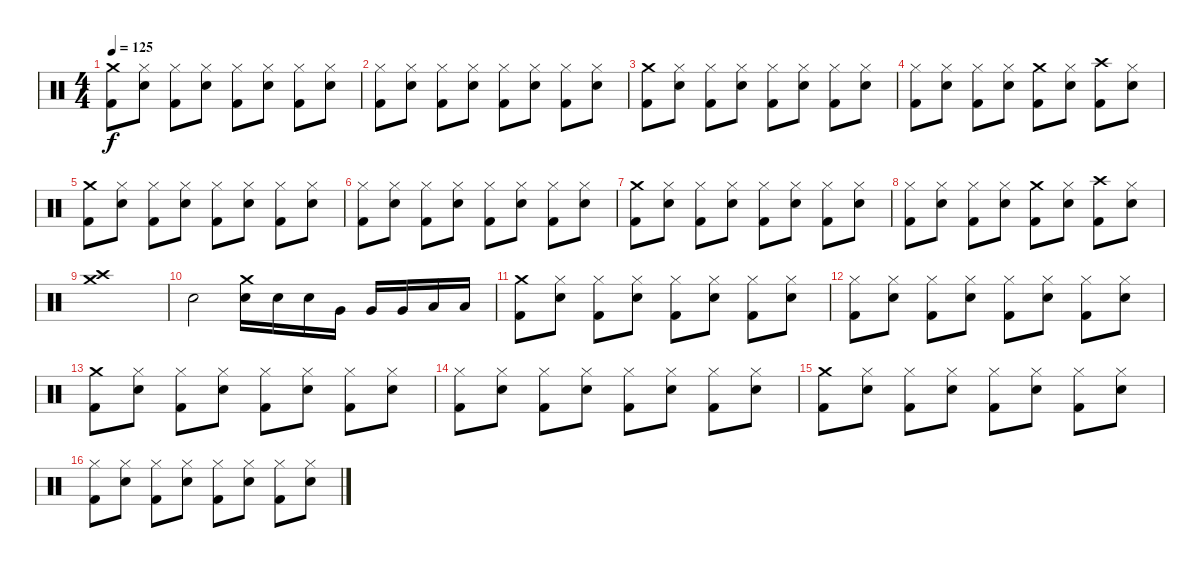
\track (" " " ") {instrument percussion}
\staff {score}
\articulation defaults
\ts (4 4)
\tempo 125
\clef neutral
\ks c
("Crash medium (hit)" "Kick (hit) 2").8{dy f} ("Hi-Hat (closed)" "Snare (hit) 2").8 ("Hi-Hat (closed)" "Kick (hit) 2").8 ("Hi-Hat (closed)" "Snare (hit) 2").8 ("Hi-Hat (closed)" "Kick (hit) 2").8 ("Hi-Hat (closed)" "Snare (hit) 2").8 ("Hi-Hat (closed)" "Kick (hit) 2").8 ("Hi-Hat (closed)" "Snare (hit) 2").8 |
("Hi-Hat (closed)" "Kick (hit) 2").8 ("Hi-Hat (closed)" "Snare (hit) 2").8 ("Hi-Hat (closed)" "Kick (hit) 2").8 ("Hi-Hat (closed)" "Snare (hit) 2").8 ("Hi-Hat (closed)" "Kick (hit) 2").8 ("Hi-Hat (closed)" "Snare (hit) 2").8 ("Hi-Hat (closed)" "Kick (hit) 2").8 ("Hi-Hat (closed)" "Snare (hit) 2").8 |
("Crash medium (hit)" "Kick (hit) 2").8 ("Hi-Hat (closed)" "Snare (hit) 2").8 ("Hi-Hat (closed)" "Kick (hit) 2").8 ("Hi-Hat (closed)" "Snare (hit) 2").8 ("Hi-Hat (closed)" "Kick (hit) 2").8 ("Hi-Hat (closed)" "Snare (hit) 2").8 ("Hi-Hat (closed)" "Kick (hit) 2").8 ("Hi-Hat (closed)" "Snare (hit) 2").8 |
("Hi-Hat (closed)" "Kick (hit) 2").8 ("Hi-Hat (closed)" "Snare (hit) 2").8 ("Hi-Hat (closed)" "Kick (hit) 2").8 ("Hi-Hat (closed)" "Snare (hit) 2").8 ("Crash medium (hit)" "Kick (hit) 2").8 ("Hi-Hat (closed)" "Snare (hit) 2").8 ("Crash high (hit)" "Kick (hit) 2").8 ("Hi-Hat (closed)" "Snare (hit) 2").8 |
("Crash medium (hit)" "Kick (hit) 2").8 ("Hi-Hat (closed)" "Snare (hit) 2").8 ("Hi-Hat (closed)" "Kick (hit) 2").8 ("Hi-Hat (closed)" "Snare (hit) 2").8 ("Hi-Hat (closed)" "Kick (hit) 2").8 ("Hi-Hat (closed)" "Snare (hit) 2").8 ("Hi-Hat (closed)" "Kick (hit) 2").8 ("Hi-Hat (closed)" "Snare (hit) 2").8 |
("Hi-Hat (closed)" "Kick (hit) 2").8 ("Hi-Hat (closed)" "Snare (hit) 2").8 ("Hi-Hat (closed)" "Kick (hit) 2").8 ("Hi-Hat (closed)" "Snare (hit) 2").8 ("Hi-Hat (closed)" "Kick (hit) 2").8 ("Hi-Hat (closed)" "Snare (hit) 2").8 ("Hi-Hat (closed)" "Kick (hit) 2").8 ("Hi-Hat (closed)" "Snare (hit) 2").8 |
("Crash medium (hit)" "Kick (hit) 2").8 ("Hi-Hat (closed)" "Snare (hit) 2").8 ("Hi-Hat (closed)" "Kick (hit) 2").8 ("Hi-Hat (closed)" "Snare (hit) 2").8 ("Hi-Hat (closed)" "Kick (hit) 2").8 ("Hi-Hat (closed)" "Snare (hit) 2").8 ("Hi-Hat (closed)" "Kick (hit) 2").8 ("Hi-Hat (closed)" "Snare (hit) 2").8 |
("Hi-Hat (closed)" "Kick (hit) 2").8 ("Hi-Hat (closed)" "Snare (hit) 2").8 ("Hi-Hat (closed)" "Kick (hit) 2").8 ("Hi-Hat (closed)" "Snare (hit) 2").8 ("Crash medium (hit)" "Kick (hit) 2").8 ("Hi-Hat (closed)" "Snare (hit) 2").8 ("Crash high (hit)" "Kick (hit) 2").8 ("Hi-Hat (closed)" "Snare (hit) 2").8 |
("Crash medium (hit)" "Crash high (hit)").1 |
"Snare (hit) 2".2 ("Crash medium (hit)" "Snare (hit) 2").16 "Snare (hit) 2".16 "Snare (hit) 2".16 "Very Low Tom (hit)".16 "Very Low Tom (hit)".16 "Very Low Tom (hit)".16 "Low Floor Tom (hit)".16 "Low Floor Tom (hit)".16 |
("Crash medium (hit)" "Kick (hit) 2").8 ("Hi-Hat (closed)" "Snare (hit) 2").8 ("Hi-Hat (closed)" "Kick (hit) 2").8 ("Hi-Hat (closed)" "Snare (hit) 2").8 ("Hi-Hat (closed)" "Kick (hit) 2").8 ("Hi-Hat (closed)" "Snare (hit) 2").8 ("Hi-Hat (closed)" "Kick (hit) 2").8 ("Hi-Hat (closed)" "Snare (hit) 2").8 |
("Hi-Hat (closed)" "Kick (hit) 2").8 ("Hi-Hat (closed)" "Snare (hit) 2").8 ("Hi-Hat (closed)" "Kick (hit) 2").8 ("Hi-Hat (closed)" "Snare (hit) 2").8 ("Hi-Hat (closed)" "Kick (hit) 2").8 ("Hi-Hat (closed)" "Snare (hit) 2").8 ("Hi-Hat (closed)" "Kick (hit) 2").8 ("Hi-Hat (closed)" "Snare (hit) 2").8 |
("Crash medium (hit)" "Kick (hit) 2").8 ("Hi-Hat (closed)" "Snare (hit) 2").8 ("Hi-Hat (closed)" "Kick (hit) 2").8 ("Hi-Hat (closed)" "Snare (hit) 2").8 ("Hi-Hat (closed)" "Kick (hit) 2").8 ("Hi-Hat (closed)" "Snare (hit) 2").8 ("Hi-Hat (closed)" "Kick (hit) 2").8 ("Hi-Hat (closed)" "Snare (hit) 2").8 |
("Hi-Hat (closed)" "Kick (hit) 2").8 ("Hi-Hat (closed)" "Snare (hit) 2").8 ("Hi-Hat (closed)" "Kick (hit) 2").8 ("Hi-Hat (closed)" "Snare (hit) 2").8 ("Hi-Hat (closed)" "Kick (hit) 2").8 ("Hi-Hat (closed)" "Snare (hit) 2").8 ("Hi-Hat (closed)" "Kick (hit) 2").8 ("Hi-Hat (closed)" "Snare (hit) 2").8 |
("Crash medium (hit)" "Kick (hit) 2").8 ("Hi-Hat (closed)" "Snare (hit) 2").8 ("Hi-Hat (closed)" "Kick (hit) 2").8 ("Hi-Hat (closed)" "Snare (hit) 2").8 ("Hi-Hat (closed)" "Kick (hit) 2").8 ("Hi-Hat (closed)" "Snare (hit) 2").8 ("Hi-Hat (closed)" "Kick (hit) 2").8 ("Hi-Hat (closed)" "Snare (hit) 2").8 |
("Hi-Hat (closed)" "Kick (hit) 2").8 ("Hi-Hat (closed)" "Snare (hit) 2").8 ("Hi-Hat (closed)" "Kick (hit) 2").8 ("Hi-Hat (closed)" "Snare (hit) 2").8 ("Hi-Hat (closed)" "Kick (hit) 2").8 ("Hi-Hat (closed)" "Snare (hit) 2").8 ("Hi-Hat (closed)" "Kick (hit) 2").8 ("Hi-Hat (closed)" "Snare (hit) 2").8
